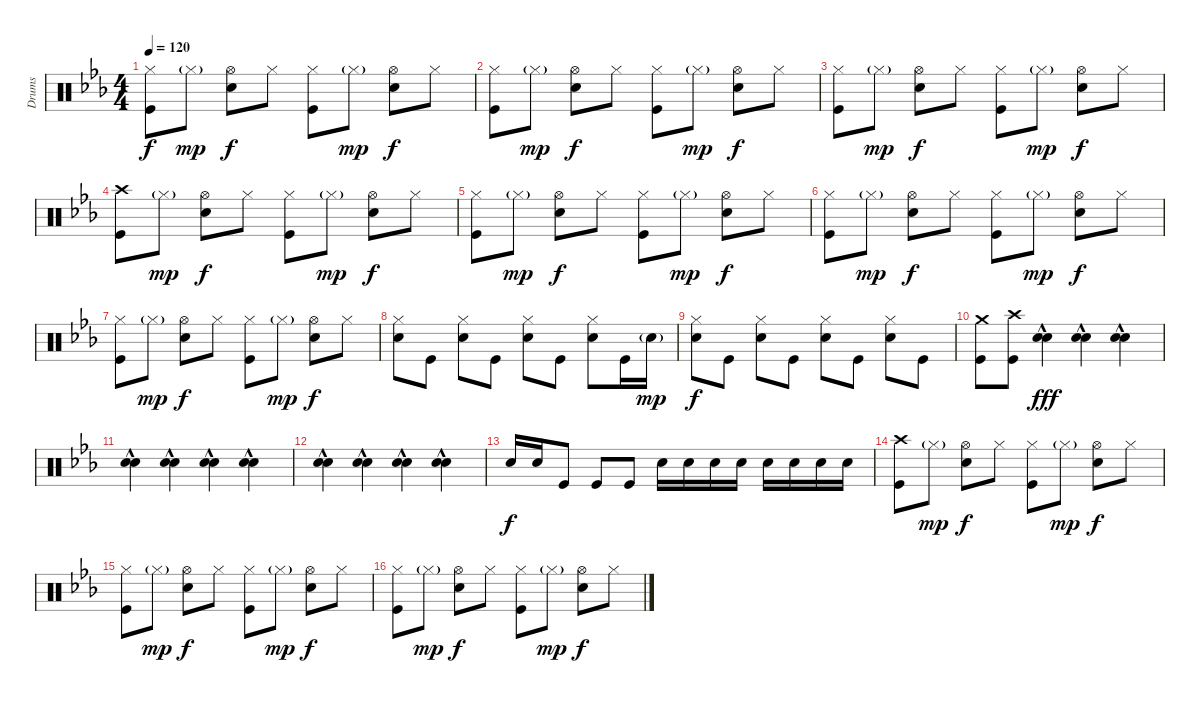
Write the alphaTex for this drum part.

\track ("Drums" "Drums") {instrument percussion}
\staff {score}
\articulation defaults
\ts (4 4)
\tempo 120
\clef neutral
\ks eb
("Hi-Hat (closed)" "Kick (hit)").8{dy f} "Hi-Hat (closed)"{g}.8{dy mp} ("Hi-Hat (open)" "Electric Snare (hit)").8{dy f} "Hi-Hat (closed)".8 ("Hi-Hat (closed)" "Kick (hit)").8 "Hi-Hat (closed)"{g}.8{dy mp} ("Hi-Hat (open)" "Electric Snare (hit)").8{dy f} "Hi-Hat (closed)".8 |
("Hi-Hat (closed)" "Kick (hit)").8 "Hi-Hat (closed)"{g}.8{dy mp} ("Hi-Hat (open)" "Electric Snare (hit)").8{dy f} "Hi-Hat (closed)".8 ("Hi-Hat (closed)" "Kick (hit)").8 "Hi-Hat (closed)"{g}.8{dy mp} ("Hi-Hat (open)" "Electric Snare (hit)").8{dy f} "Hi-Hat (closed)".8 |
("Hi-Hat (closed)" "Kick (hit)").8 "Hi-Hat (closed)"{g}.8{dy mp} ("Hi-Hat (open)" "Electric Snare (hit)").8{dy f} "Hi-Hat (closed)".8 ("Hi-Hat (closed)" "Kick (hit)").8 "Hi-Hat (closed)"{g}.8{dy mp} ("Hi-Hat (open)" "Electric Snare (hit)").8{dy f} "Hi-Hat (closed)".8 |
("Crash high (hit)" "Kick (hit)").8 "Hi-Hat (closed)"{g}.8{dy mp} ("Hi-Hat (open)" "Electric Snare (hit)").8{dy f} "Hi-Hat (closed)".8 ("Hi-Hat (closed)" "Kick (hit)").8 "Hi-Hat (closed)"{g}.8{dy mp} ("Hi-Hat (open)" "Electric Snare (hit)").8{dy f} "Hi-Hat (closed)".8 |
("Hi-Hat (closed)" "Kick (hit)").8 "Hi-Hat (closed)"{g}.8{dy mp} ("Hi-Hat (open)" "Electric Snare (hit)").8{dy f} "Hi-Hat (closed)".8 ("Hi-Hat (closed)" "Kick (hit)").8 "Hi-Hat (closed)"{g}.8{dy mp} ("Hi-Hat (open)" "Electric Snare (hit)").8{dy f} "Hi-Hat (closed)".8 |
("Hi-Hat (closed)" "Kick (hit)").8 "Hi-Hat (closed)"{g}.8{dy mp} ("Hi-Hat (open)" "Electric Snare (hit)").8{dy f} "Hi-Hat (closed)".8 ("Hi-Hat (closed)" "Kick (hit)").8 "Hi-Hat (closed)"{g}.8{dy mp} ("Hi-Hat (open)" "Electric Snare (hit)").8{dy f} "Hi-Hat (closed)".8 |
("Hi-Hat (closed)" "Kick (hit)").8 "Hi-Hat (closed)"{g}.8{dy mp} ("Hi-Hat (open)" "Electric Snare (hit)").8{dy f} "Hi-Hat (closed)".8 ("Hi-Hat (closed)" "Kick (hit)").8 "Hi-Hat (closed)"{g}.8{dy mp} ("Hi-Hat (open)" "Electric Snare (hit)").8{dy f} "Hi-Hat (closed)".8 |
("Hi-Hat (closed)" "Electric Snare (hit)").8 "Kick (hit)".8 ("Hi-Hat (closed)" "Electric Snare (hit)").8 "Kick (hit)".8 ("Hi-Hat (closed)" "Electric Snare (hit)").8 "Kick (hit)".8 ("Hi-Hat (closed)" "Electric Snare (hit)").8 "Kick (hit)".16 "Electric Snare (hit)"{g}.16{dy mp} |
("Hi-Hat (closed)" "Electric Snare (hit)").8{dy f} "Kick (hit)".8 ("Hi-Hat (closed)" "Electric Snare (hit)").8 "Kick (hit)".8 ("Hi-Hat (closed)" "Electric Snare (hit)").8 "Kick (hit)".8 ("Hi-Hat (closed)" "Electric Snare (hit)").8 "Kick (hit)".8 |
("Crash medium (hit)" "Kick (hit)").8 ("Crash high (hit)" "Kick (hit)").8 ("Hand Clap (hit)"{hac} "Hand Clap (hit)"{hac}).4{dy fff} ("Hand Clap (hit)"{hac} "Hand Clap (hit)"{hac}).4 ("Hand Clap (hit)"{hac} "Hand Clap (hit)"{hac}).4 |
("Hand Clap (hit)"{hac} "Hand Clap (hit)"{hac}).4 ("Hand Clap (hit)"{hac} "Hand Clap (hit)"{hac}).4 ("Hand Clap (hit)"{hac} "Hand Clap (hit)"{hac}).4 ("Hand Clap (hit)"{hac} "Hand Clap (hit)"{hac}).4 |
("Hand Clap (hit)"{hac} "Hand Clap (hit)"{hac}).4 ("Hand Clap (hit)"{hac} "Hand Clap (hit)"{hac}).4 ("Hand Clap (hit)"{hac} "Hand Clap (hit)"{hac}).4 ("Hand Clap (hit)"{hac} "Hand Clap (hit)"{hac}).4 |
"Electric Snare (hit)".16{dy f} "Electric Snare (hit)".16 "Kick (hit)".8 "Kick (hit)".8 "Kick (hit)".8 "Electric Snare (hit)".16 "Electric Snare (hit)".16 "Electric Snare (hit)".16 "Electric Snare (hit)".16 "Electric Snare (hit)".16 "Electric Snare (hit)".16 "Electric Snare (hit)".16 "Electric Snare (hit)".16 |
("Crash high (hit)" "Kick (hit)").8 "Hi-Hat (closed)"{g}.8{dy mp} ("Hi-Hat (open)" "Electric Snare (hit)").8{dy f} "Hi-Hat (closed)".8 ("Hi-Hat (closed)" "Kick (hit)").8 "Hi-Hat (closed)"{g}.8{dy mp} ("Hi-Hat (open)" "Electric Snare (hit)").8{dy f} "Hi-Hat (closed)".8 |
("Hi-Hat (closed)" "Kick (hit)").8 "Hi-Hat (closed)"{g}.8{dy mp} ("Hi-Hat (open)" "Electric Snare (hit)").8{dy f} "Hi-Hat (closed)".8 ("Hi-Hat (closed)" "Kick (hit)").8 "Hi-Hat (closed)"{g}.8{dy mp} ("Hi-Hat (open)" "Electric Snare (hit)").8{dy f} "Hi-Hat (closed)".8 |
("Hi-Hat (closed)" "Kick (hit)").8 "Hi-Hat (closed)"{g}.8{dy mp} ("Hi-Hat (open)" "Electric Snare (hit)").8{dy f} "Hi-Hat (closed)".8 ("Hi-Hat (closed)" "Kick (hit)").8 "Hi-Hat (closed)"{g}.8{dy mp} ("Hi-Hat (open)" "Electric Snare (hit)").8{dy f} "Hi-Hat (closed)".8
